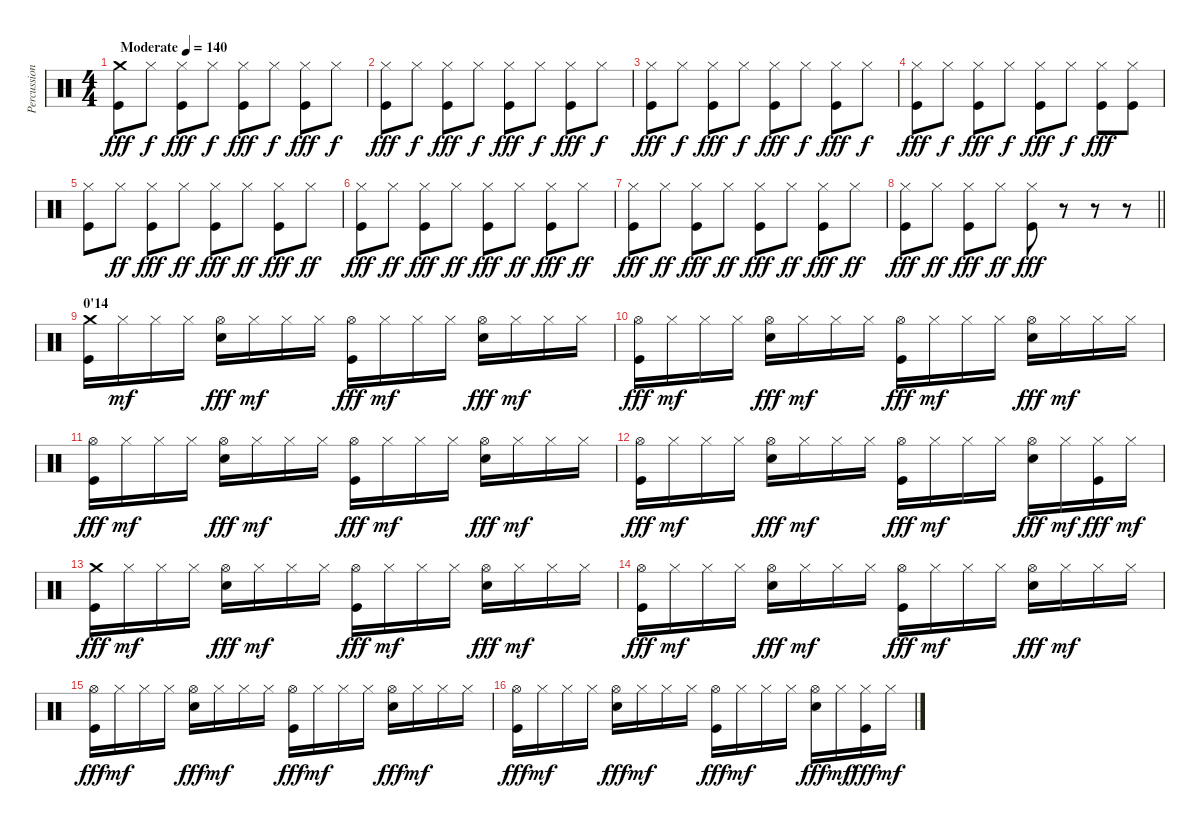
\track ("Percussions" "Percussion") {instrument percussion}
\staff {score}
\articulation defaults
\ts (4 4)
\tempo (140 "Moderate")
\clef neutral
\ks c
("Crash medium (hit)" "Kick (hit)").8{dy fff} "Hi-Hat (closed)".8{dy f} ("Hi-Hat (closed)" "Kick (hit)").8{dy fff} "Hi-Hat (closed)".8{dy f} ("Hi-Hat (closed)" "Kick (hit)").8{dy fff} "Hi-Hat (closed)".8{dy f} ("Hi-Hat (closed)" "Kick (hit)").8{dy fff} "Hi-Hat (closed)".8{dy f} |
("Hi-Hat (closed)" "Kick (hit)").8{dy fff} "Hi-Hat (closed)".8{dy f} ("Hi-Hat (closed)" "Kick (hit)").8{dy fff} "Hi-Hat (closed)".8{dy f} ("Hi-Hat (closed)" "Kick (hit)").8{dy fff} "Hi-Hat (closed)".8{dy f} ("Hi-Hat (closed)" "Kick (hit)").8{dy fff} "Hi-Hat (closed)".8{dy f} |
("Hi-Hat (closed)" "Kick (hit)").8{dy fff} "Hi-Hat (closed)".8{dy f} ("Hi-Hat (closed)" "Kick (hit)").8{dy fff} "Hi-Hat (closed)".8{dy f} ("Hi-Hat (closed)" "Kick (hit)").8{dy fff} "Hi-Hat (closed)".8{dy f} ("Hi-Hat (closed)" "Kick (hit)").8{dy fff} "Hi-Hat (closed)".8{dy f} |
("Hi-Hat (closed)" "Kick (hit)").8{dy fff} "Hi-Hat (closed)".8{dy f} ("Hi-Hat (closed)" "Kick (hit)").8{dy fff} "Hi-Hat (closed)".8{dy f} ("Hi-Hat (closed)" "Kick (hit)").8{dy fff} "Hi-Hat (closed)".8{dy f} ("Hi-Hat (closed)" "Kick (hit)").8{dy fff} ("Hi-Hat (closed)" "Kick (hit)").8 |
("Hi-Hat (closed)" "Kick (hit)").8 "Hi-Hat (closed)".8{dy ff} ("Hi-Hat (closed)" "Kick (hit)").8{dy fff} "Hi-Hat (closed)".8{dy ff} ("Hi-Hat (closed)" "Kick (hit)").8{dy fff} "Hi-Hat (closed)".8{dy ff} ("Hi-Hat (closed)" "Kick (hit)").8{dy fff} "Hi-Hat (closed)".8{dy ff} |
("Hi-Hat (closed)" "Kick (hit)").8{dy fff} "Hi-Hat (closed)".8{dy ff} ("Hi-Hat (closed)" "Kick (hit)").8{dy fff} "Hi-Hat (closed)".8{dy ff} ("Hi-Hat (closed)" "Kick (hit)").8{dy fff} "Hi-Hat (closed)".8{dy ff} ("Hi-Hat (closed)" "Kick (hit)").8{dy fff} "Hi-Hat (closed)".8{dy ff} |
("Hi-Hat (closed)" "Kick (hit)").8{dy fff} "Hi-Hat (closed)".8{dy ff} ("Hi-Hat (closed)" "Kick (hit)").8{dy fff} "Hi-Hat (closed)".8{dy ff} ("Hi-Hat (closed)" "Kick (hit)").8{dy fff} "Hi-Hat (closed)".8{dy ff} ("Hi-Hat (closed)" "Kick (hit)").8{dy fff} "Hi-Hat (closed)".8{dy ff} |
\barLineRight lightlight
("Hi-Hat (closed)" "Kick (hit)").8{dy fff} "Hi-Hat (closed)".8{dy ff} ("Hi-Hat (closed)" "Kick (hit)").8{dy fff} "Hi-Hat (closed)".8{dy ff} ("Hi-Hat (closed)" "Kick (hit)").8{dy fff} r.8 r.8 r.8 |
\section ("" "0'14")
("Crash medium (hit)" "Kick (hit)").16 "Hi-Hat (closed)".16{dy mf} "Hi-Hat (closed)".16 "Hi-Hat (closed)".16 ("Hi-Hat (open)" "Electric Snare (hit)").16{dy fff} "Hi-Hat (closed)".16{dy mf} "Hi-Hat (closed)".16 "Hi-Hat (closed)".16 ("Hi-Hat (open)" "Kick (hit)").16{dy fff} "Hi-Hat (closed)".16{dy mf} "Hi-Hat (closed)".16 "Hi-Hat (closed)".16 ("Hi-Hat (open)" "Electric Snare (hit)").16{dy fff} "Hi-Hat (closed)".16{dy mf} "Hi-Hat (closed)".16 "Hi-Hat (closed)".16 |
("Hi-Hat (open)" "Kick (hit)").16{dy fff} "Hi-Hat (closed)".16{dy mf} "Hi-Hat (closed)".16 "Hi-Hat (closed)".16 ("Hi-Hat (open)" "Electric Snare (hit)").16{dy fff} "Hi-Hat (closed)".16{dy mf} "Hi-Hat (closed)".16 "Hi-Hat (closed)".16 ("Hi-Hat (open)" "Kick (hit)").16{dy fff} "Hi-Hat (closed)".16{dy mf} "Hi-Hat (closed)".16 "Hi-Hat (closed)".16 ("Hi-Hat (open)" "Electric Snare (hit)").16{dy fff} "Hi-Hat (closed)".16{dy mf} "Hi-Hat (closed)".16 "Hi-Hat (closed)".16 |
("Hi-Hat (open)" "Kick (hit)").16{dy fff} "Hi-Hat (closed)".16{dy mf} "Hi-Hat (closed)".16 "Hi-Hat (closed)".16 ("Hi-Hat (open)" "Electric Snare (hit)").16{dy fff} "Hi-Hat (closed)".16{dy mf} "Hi-Hat (closed)".16 "Hi-Hat (closed)".16 ("Hi-Hat (open)" "Kick (hit)").16{dy fff} "Hi-Hat (closed)".16{dy mf} "Hi-Hat (closed)".16 "Hi-Hat (closed)".16 ("Hi-Hat (open)" "Electric Snare (hit)").16{dy fff} "Hi-Hat (closed)".16{dy mf} "Hi-Hat (closed)".16 "Hi-Hat (closed)".16 |
("Hi-Hat (open)" "Kick (hit)").16{dy fff} "Hi-Hat (closed)".16{dy mf} "Hi-Hat (closed)".16 "Hi-Hat (closed)".16 ("Hi-Hat (open)" "Electric Snare (hit)").16{dy fff} "Hi-Hat (closed)".16{dy mf} "Hi-Hat (closed)".16 "Hi-Hat (closed)".16 ("Hi-Hat (open)" "Kick (hit)").16{dy fff} "Hi-Hat (closed)".16{dy mf} "Hi-Hat (closed)".16 "Hi-Hat (closed)".16 ("Hi-Hat (open)" "Electric Snare (hit)").16{dy fff} "Hi-Hat (closed)".16{dy mf} ("Hi-Hat (closed)" "Kick (hit)").16{dy fff} "Hi-Hat (closed)".16{dy mf} |
("Crash medium (hit)" "Kick (hit)").16{dy fff} "Hi-Hat (closed)".16{dy mf} "Hi-Hat (closed)".16 "Hi-Hat (closed)".16 ("Hi-Hat (open)" "Electric Snare (hit)").16{dy fff} "Hi-Hat (closed)".16{dy mf} "Hi-Hat (closed)".16 "Hi-Hat (closed)".16 ("Hi-Hat (open)" "Kick (hit)").16{dy fff} "Hi-Hat (closed)".16{dy mf} "Hi-Hat (closed)".16 "Hi-Hat (closed)".16 ("Hi-Hat (open)" "Electric Snare (hit)").16{dy fff} "Hi-Hat (closed)".16{dy mf} "Hi-Hat (closed)".16 "Hi-Hat (closed)".16 |
("Hi-Hat (open)" "Kick (hit)").16{dy fff} "Hi-Hat (closed)".16{dy mf} "Hi-Hat (closed)".16 "Hi-Hat (closed)".16 ("Hi-Hat (open)" "Electric Snare (hit)").16{dy fff} "Hi-Hat (closed)".16{dy mf} "Hi-Hat (closed)".16 "Hi-Hat (closed)".16 ("Hi-Hat (open)" "Kick (hit)").16{dy fff} "Hi-Hat (closed)".16{dy mf} "Hi-Hat (closed)".16 "Hi-Hat (closed)".16 ("Hi-Hat (open)" "Electric Snare (hit)").16{dy fff} "Hi-Hat (closed)".16{dy mf} "Hi-Hat (closed)".16 "Hi-Hat (closed)".16 |
("Hi-Hat (open)" "Kick (hit)").16{dy fff} "Hi-Hat (closed)".16{dy mf} "Hi-Hat (closed)".16 "Hi-Hat (closed)".16 ("Hi-Hat (open)" "Electric Snare (hit)").16{dy fff} "Hi-Hat (closed)".16{dy mf} "Hi-Hat (closed)".16 "Hi-Hat (closed)".16 ("Hi-Hat (open)" "Kick (hit)").16{dy fff} "Hi-Hat (closed)".16{dy mf} "Hi-Hat (closed)".16 "Hi-Hat (closed)".16 ("Hi-Hat (open)" "Electric Snare (hit)").16{dy fff} "Hi-Hat (closed)".16{dy mf} "Hi-Hat (closed)".16 "Hi-Hat (closed)".16 |
("Hi-Hat (open)" "Kick (hit)").16{dy fff} "Hi-Hat (closed)".16{dy mf} "Hi-Hat (closed)".16 "Hi-Hat (closed)".16 ("Hi-Hat (open)" "Electric Snare (hit)").16{dy fff} "Hi-Hat (closed)".16{dy mf} "Hi-Hat (closed)".16 "Hi-Hat (closed)".16 ("Hi-Hat (open)" "Kick (hit)").16{dy fff} "Hi-Hat (closed)".16{dy mf} "Hi-Hat (closed)".16 "Hi-Hat (closed)".16 ("Hi-Hat (open)" "Electric Snare (hit)").16{dy fff} "Hi-Hat (closed)".16{dy mf} ("Hi-Hat (closed)" "Kick (hit)").16{dy fff} "Hi-Hat (closed)".16{dy mf}
